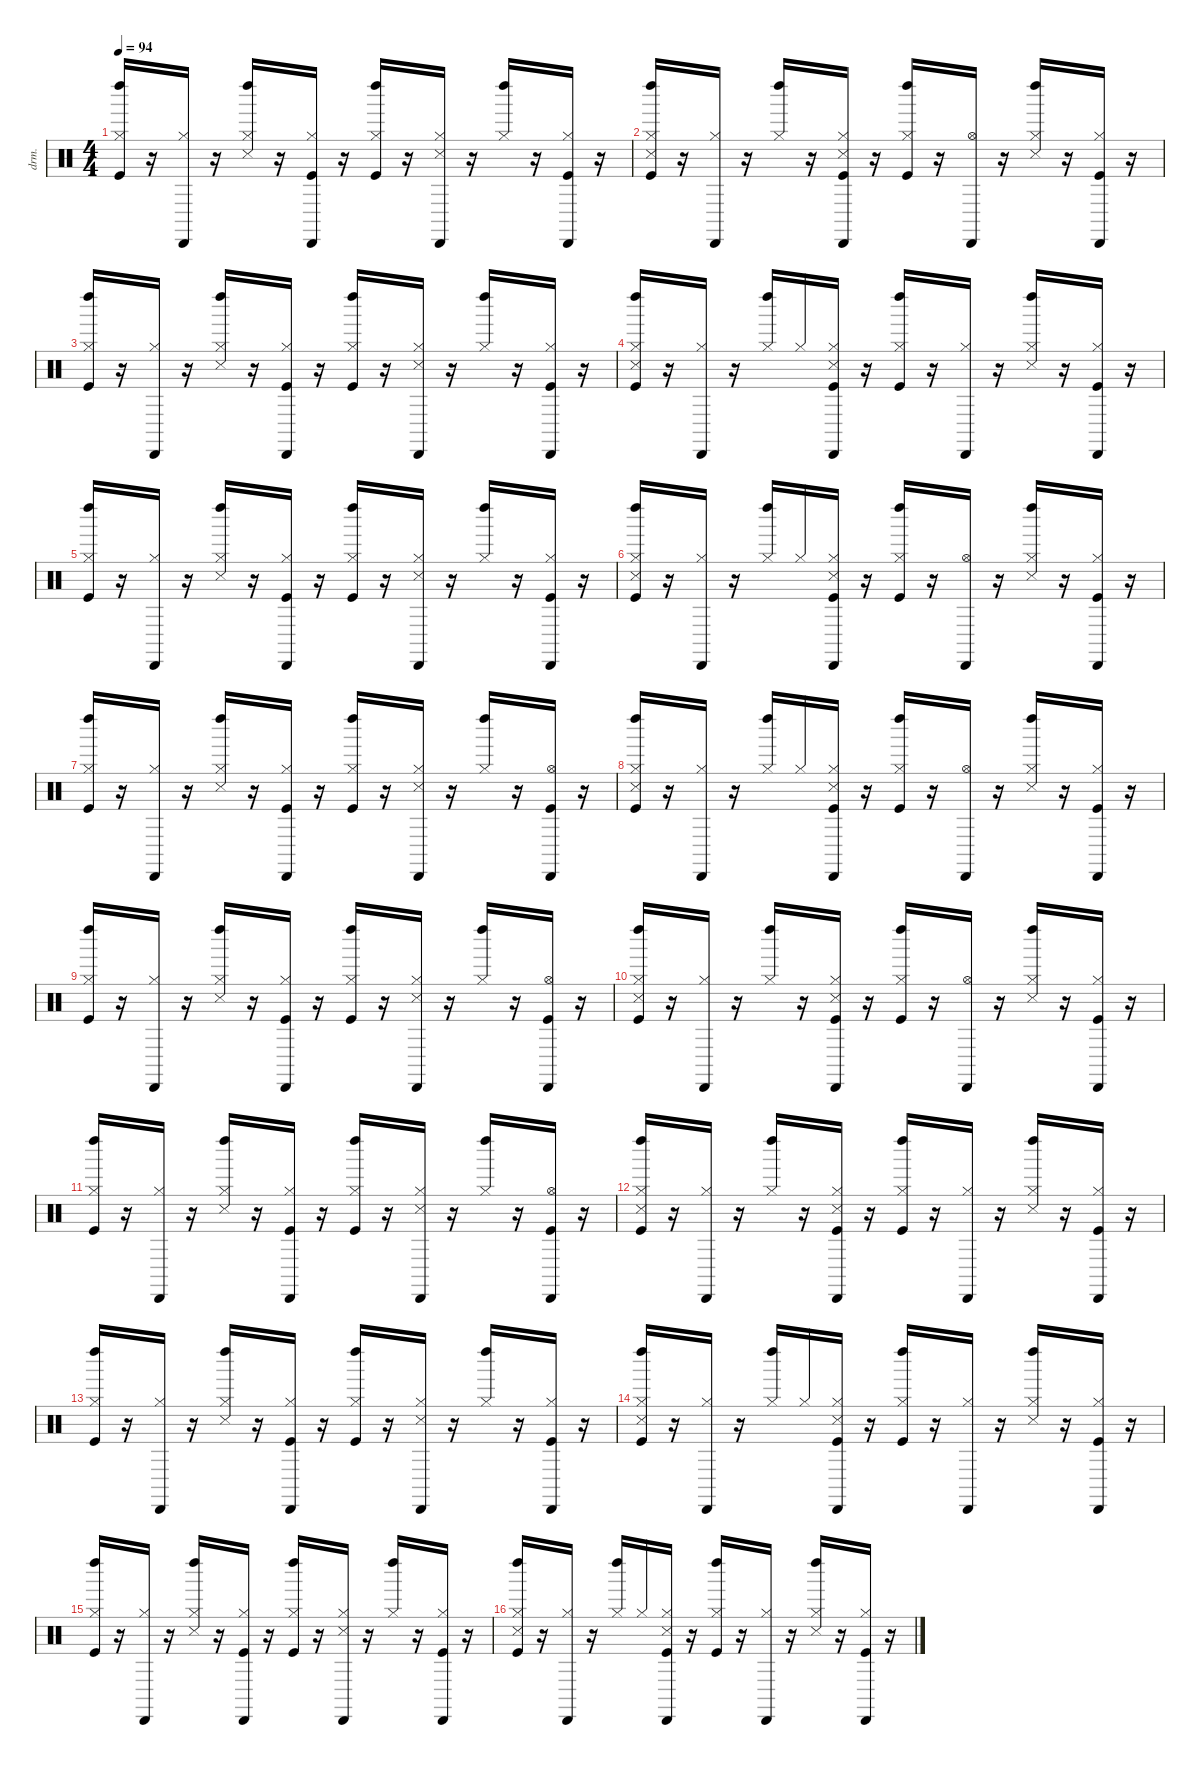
\defaultSystemsLayout 4
\hideDynamics
\bracketExtendMode nobrackets
\otherSystemsTrackNameOrientation horizontal
\track ("Drums" "drm.") {instrument percussion}
\staff {score}
\articulation defaults
\ts (4 4)
\tempo 94
\clef neutral
\ks c
("Left Maraca (hit)" "Hi-Hat (closed)" "Kick (hit)").16{dy mf beam Up} r.16{beam Up} ("Cabasa (hit)" "Hi-Hat (closed)").16{dy p beam Up} r.16{beam Up} ("Left Maraca (hit)" "Hi-Hat (closed)" "Snare (side stick) 3").16{dy mf beam Up} r.16{beam Up} ("Cabasa (hit)" "Hi-Hat (closed)" "Kick (hit)").16{dy p beam Up} r.16{beam Up} ("Left Maraca (hit)" "Hi-Hat (closed)" "Kick (hit)").16{dy mf beam Up} r.16{beam Up} ("Cabasa (hit)" "Hi-Hat (closed)" "Snare (side stick) 3").16{dy p beam Up} r.16{beam Up} ("Left Maraca (hit)" "Hi-Hat (closed)").16{dy mf beam Up} r.16{beam Up} ("Cabasa (hit)" "Hi-Hat (closed)" "Kick (hit)").16{dy p beam Up} r.16{beam Up} |
("Left Maraca (hit)" "Hi-Hat (closed)" "Snare (side stick) 3" "Kick (hit)").16{dy mf beam Up} r.16{beam Up} ("Cabasa (hit)" "Hi-Hat (closed)").16{dy p beam Up} r.16{beam Up} ("Left Maraca (hit)" "Hi-Hat (closed)").16{dy mf beam Up} r.16{beam Up} ("Cabasa (hit)" "Hi-Hat (closed)" "Snare (side stick) 3" "Kick (hit)").16{dy p beam Up} r.16{beam Up} ("Left Maraca (hit)" "Hi-Hat (closed)" "Kick (hit)").16{dy mf beam Up} r.16{beam Up} ("Cabasa (hit)" "Hi-Hat (open)").16{dy p beam Up} r.16{beam Up} ("Left Maraca (hit)" "Hi-Hat (closed)" "Snare (side stick) 3").16{dy mf beam Up} r.16{beam Up} ("Cabasa (hit)" "Hi-Hat (closed)" "Kick (hit)").16{dy p beam Up} r.16{beam Up} |
("Left Maraca (hit)" "Hi-Hat (closed)" "Kick (hit)").16{dy mf beam Up} r.16{beam Up} ("Cabasa (hit)" "Hi-Hat (closed)").16{dy p beam Up} r.16{beam Up} ("Left Maraca (hit)" "Hi-Hat (closed)" "Snare (side stick) 3").16{dy mf beam Up} r.16{beam Up} ("Cabasa (hit)" "Hi-Hat (closed)" "Kick (hit)").16{dy p beam Up} r.16{beam Up} ("Left Maraca (hit)" "Hi-Hat (closed)" "Kick (hit)").16{dy mf beam Up} r.16{beam Up} ("Cabasa (hit)" "Hi-Hat (closed)" "Snare (side stick) 3").16{dy p beam Up} r.16{beam Up} ("Left Maraca (hit)" "Hi-Hat (closed)").16{dy mf beam Up} r.16{beam Up} ("Cabasa (hit)" "Hi-Hat (closed)" "Kick (hit)").16{dy p beam Up} r.16{beam Up} |
("Left Maraca (hit)" "Hi-Hat (closed)" "Snare (side stick) 3" "Kick (hit)").16{dy mf beam Up} r.16{beam Up} ("Cabasa (hit)" "Hi-Hat (closed)").16{dy p beam Up} r.16{beam Up} ("Left Maraca (hit)" "Hi-Hat (closed)").16{dy mf beam Up} "Hi-Hat (closed)".16{beam Up} ("Cabasa (hit)" "Hi-Hat (closed)" "Snare (side stick) 3" "Kick (hit)").16{dy p beam Up} r.16{beam Up} ("Left Maraca (hit)" "Hi-Hat (closed)" "Kick (hit)").16{dy mf beam Up} r.16{beam Up} ("Cabasa (hit)" "Hi-Hat (closed)").16{dy p beam Up} r.16{beam Up} ("Left Maraca (hit)" "Hi-Hat (closed)" "Snare (side stick) 3").16{dy mf beam Up} r.16{beam Up} ("Cabasa (hit)" "Hi-Hat (closed)" "Kick (hit)").16{dy p beam Up} r.16{beam Up} |
("Left Maraca (hit)" "Hi-Hat (closed)" "Kick (hit)").16{dy mf beam Up} r.16{beam Up} ("Cabasa (hit)" "Hi-Hat (closed)").16{dy p beam Up} r.16{beam Up} ("Left Maraca (hit)" "Hi-Hat (closed)" "Snare (side stick) 3").16{dy mf beam Up} r.16{beam Up} ("Cabasa (hit)" "Hi-Hat (closed)" "Kick (hit)").16{dy p beam Up} r.16{beam Up} ("Left Maraca (hit)" "Hi-Hat (closed)" "Kick (hit)").16{dy mf beam Up} r.16{beam Up} ("Cabasa (hit)" "Hi-Hat (closed)" "Snare (side stick) 3").16{dy p beam Up} r.16{beam Up} ("Left Maraca (hit)" "Hi-Hat (closed)").16{dy mf beam Up} r.16{beam Up} ("Cabasa (hit)" "Hi-Hat (closed)" "Kick (hit)").16{dy p beam Up} r.16{beam Up} |
("Left Maraca (hit)" "Hi-Hat (closed)" "Snare (side stick) 3" "Kick (hit)").16{dy mf beam Up} r.16{beam Up} ("Cabasa (hit)" "Hi-Hat (closed)").16{dy p beam Up} r.16{beam Up} ("Left Maraca (hit)" "Hi-Hat (closed)").16{dy mf beam Up} "Hi-Hat (closed)".16{beam Up} ("Cabasa (hit)" "Hi-Hat (closed)" "Snare (side stick) 3" "Kick (hit)").16{dy p beam Up} r.16{beam Up} ("Left Maraca (hit)" "Hi-Hat (closed)" "Kick (hit)").16{dy mf beam Up} r.16{beam Up} ("Cabasa (hit)" "Hi-Hat (open)").16{dy p beam Up} r.16{beam Up} ("Left Maraca (hit)" "Hi-Hat (closed)" "Snare (side stick) 3").16{dy mf beam Up} r.16{beam Up} ("Cabasa (hit)" "Hi-Hat (closed)" "Kick (hit)").16{dy p beam Up} r.16{beam Up} |
("Left Maraca (hit)" "Hi-Hat (closed)" "Kick (hit)").16{dy mf beam Up} r.16{beam Up} ("Cabasa (hit)" "Hi-Hat (closed)").16{dy p beam Up} r.16{beam Up} ("Left Maraca (hit)" "Hi-Hat (closed)" "Snare (side stick) 3").16{dy mf beam Up} r.16{beam Up} ("Cabasa (hit)" "Hi-Hat (closed)" "Kick (hit)").16{dy p beam Up} r.16{beam Up} ("Left Maraca (hit)" "Hi-Hat (closed)" "Kick (hit)").16{dy mf beam Up} r.16{beam Up} ("Cabasa (hit)" "Hi-Hat (closed)" "Snare (side stick) 3").16{dy p beam Up} r.16{beam Up} ("Left Maraca (hit)" "Hi-Hat (closed)").16{dy mf beam Up} r.16{beam Up} ("Cabasa (hit)" "Hi-Hat (open)" "Kick (hit)").16{dy p beam Up} r.16{beam Up} |
("Left Maraca (hit)" "Hi-Hat (closed)" "Snare (side stick) 3" "Kick (hit)").16{dy mf beam Up} r.16{beam Up} ("Cabasa (hit)" "Hi-Hat (closed)").16{dy p beam Up} r.16{beam Up} ("Left Maraca (hit)" "Hi-Hat (closed)").16{dy mf beam Up} "Hi-Hat (closed)".16{beam Up} ("Cabasa (hit)" "Hi-Hat (closed)" "Snare (side stick) 3" "Kick (hit)").16{dy p beam Up} r.16{beam Up} ("Left Maraca (hit)" "Hi-Hat (closed)" "Kick (hit)").16{dy mf beam Up} r.16{beam Up} ("Cabasa (hit)" "Hi-Hat (open)").16{dy p beam Up} r.16{beam Up} ("Left Maraca (hit)" "Hi-Hat (closed)" "Snare (side stick) 3").16{dy mf beam Up} r.16{beam Up} ("Cabasa (hit)" "Hi-Hat (closed)" "Kick (hit)").16{dy p beam Up} r.16{beam Up} |
("Left Maraca (hit)" "Hi-Hat (closed)" "Kick (hit)").16{dy mf beam Up} r.16{beam Up} ("Cabasa (hit)" "Hi-Hat (closed)").16{dy p beam Up} r.16{beam Up} ("Left Maraca (hit)" "Hi-Hat (closed)" "Snare (side stick) 3").16{dy mf beam Up} r.16{beam Up} ("Cabasa (hit)" "Hi-Hat (closed)" "Kick (hit)").16{dy p beam Up} r.16{beam Up} ("Left Maraca (hit)" "Hi-Hat (closed)" "Kick (hit)").16{dy mf beam Up} r.16{beam Up} ("Cabasa (hit)" "Hi-Hat (closed)" "Snare (side stick) 3").16{dy p beam Up} r.16{beam Up} ("Left Maraca (hit)" "Hi-Hat (closed)").16{dy mf beam Up} r.16{beam Up} ("Cabasa (hit)" "Hi-Hat (open)" "Kick (hit)").16{dy p beam Up} r.16{beam Up} |
("Left Maraca (hit)" "Hi-Hat (closed)" "Snare (side stick) 3" "Kick (hit)").16{dy mf beam Up} r.16{beam Up} ("Cabasa (hit)" "Hi-Hat (closed)").16{dy p beam Up} r.16{beam Up} ("Left Maraca (hit)" "Hi-Hat (closed)").16{dy mf beam Up} r.16{beam Up} ("Cabasa (hit)" "Hi-Hat (closed)" "Snare (side stick) 3" "Kick (hit)").16{dy p beam Up} r.16{beam Up} ("Left Maraca (hit)" "Hi-Hat (closed)" "Kick (hit)").16{dy mf beam Up} r.16{beam Up} ("Cabasa (hit)" "Hi-Hat (open)").16{dy p beam Up} r.16{beam Up} ("Left Maraca (hit)" "Hi-Hat (closed)" "Snare (side stick) 3").16{dy mf beam Up} r.16{beam Up} ("Cabasa (hit)" "Hi-Hat (closed)" "Kick (hit)").16{dy p beam Up} r.16{beam Up} |
("Left Maraca (hit)" "Hi-Hat (closed)" "Kick (hit)").16{dy mf beam Up} r.16{beam Up} ("Cabasa (hit)" "Hi-Hat (closed)").16{dy p beam Up} r.16{beam Up} ("Left Maraca (hit)" "Hi-Hat (closed)" "Snare (side stick) 3").16{dy mf beam Up} r.16{beam Up} ("Cabasa (hit)" "Hi-Hat (closed)" "Kick (hit)").16{dy p beam Up} r.16{beam Up} ("Left Maraca (hit)" "Hi-Hat (closed)" "Kick (hit)").16{dy mf beam Up} r.16{beam Up} ("Cabasa (hit)" "Hi-Hat (closed)" "Snare (side stick) 3").16{dy p beam Up} r.16{beam Up} ("Left Maraca (hit)" "Hi-Hat (closed)").16{dy mf beam Up} r.16{beam Up} ("Cabasa (hit)" "Hi-Hat (open)" "Kick (hit)").16{dy p beam Up} r.16{beam Up} |
("Left Maraca (hit)" "Hi-Hat (closed)" "Snare (side stick) 3" "Kick (hit)").16{dy mf beam Up} r.16{beam Up} ("Cabasa (hit)" "Hi-Hat (closed)").16{dy p beam Up} r.16{beam Up} ("Left Maraca (hit)" "Hi-Hat (closed)").16{dy mf beam Up} r.16{beam Up} ("Cabasa (hit)" "Hi-Hat (closed)" "Snare (side stick) 3" "Kick (hit)").16{dy p beam Up} r.16{beam Up} ("Left Maraca (hit)" "Hi-Hat (closed)" "Kick (hit)").16{dy mf beam Up} r.16{beam Up} ("Cabasa (hit)" "Hi-Hat (closed)").16{dy p beam Up} r.16{beam Up} ("Left Maraca (hit)" "Hi-Hat (closed)" "Snare (side stick) 3").16{dy mf beam Up} r.16{beam Up} ("Cabasa (hit)" "Hi-Hat (closed)" "Kick (hit)").16{dy p beam Up} r.16{beam Up} |
("Left Maraca (hit)" "Hi-Hat (closed)" "Kick (hit)").16{dy mf beam Up} r.16{beam Up} ("Cabasa (hit)" "Hi-Hat (closed)").16{dy p beam Up} r.16{beam Up} ("Left Maraca (hit)" "Hi-Hat (closed)" "Snare (side stick) 3").16{dy mf beam Up} r.16{beam Up} ("Cabasa (hit)" "Hi-Hat (closed)" "Kick (hit)").16{dy p beam Up} r.16{beam Up} ("Left Maraca (hit)" "Hi-Hat (closed)" "Kick (hit)").16{dy mf beam Up} r.16{beam Up} ("Cabasa (hit)" "Hi-Hat (closed)" "Snare (side stick) 3").16{dy p beam Up} r.16{beam Up} ("Left Maraca (hit)" "Hi-Hat (closed)").16{dy mf beam Up} r.16{beam Up} ("Cabasa (hit)" "Hi-Hat (closed)" "Kick (hit)").16{dy p beam Up} r.16{beam Up} |
("Left Maraca (hit)" "Hi-Hat (closed)" "Snare (side stick) 3" "Kick (hit)").16{dy mf beam Up} r.16{beam Up} ("Cabasa (hit)" "Hi-Hat (closed)").16{dy p beam Up} r.16{beam Up} ("Left Maraca (hit)" "Hi-Hat (closed)").16{dy mf beam Up} "Hi-Hat (closed)".16{beam Up} ("Cabasa (hit)" "Hi-Hat (closed)" "Snare (side stick) 3" "Kick (hit)").16{dy p beam Up} r.16{beam Up} ("Left Maraca (hit)" "Hi-Hat (closed)" "Kick (hit)").16{dy mf beam Up} r.16{beam Up} ("Cabasa (hit)" "Hi-Hat (closed)").16{dy p beam Up} r.16{beam Up} ("Left Maraca (hit)" "Hi-Hat (closed)" "Snare (side stick) 3").16{dy mf beam Up} r.16{beam Up} ("Cabasa (hit)" "Hi-Hat (closed)" "Kick (hit)").16{dy p beam Up} r.16{beam Up} |
("Left Maraca (hit)" "Hi-Hat (closed)" "Kick (hit)").16{dy mf beam Up} r.16{beam Up} ("Cabasa (hit)" "Hi-Hat (closed)").16{dy p beam Up} r.16{beam Up} ("Left Maraca (hit)" "Hi-Hat (closed)" "Snare (side stick) 3").16{dy mf beam Up} r.16{beam Up} ("Cabasa (hit)" "Hi-Hat (closed)" "Kick (hit)").16{dy p beam Up} r.16{beam Up} ("Left Maraca (hit)" "Hi-Hat (closed)" "Kick (hit)").16{dy mf beam Up} r.16{beam Up} ("Cabasa (hit)" "Hi-Hat (closed)" "Snare (side stick) 3").16{dy p beam Up} r.16{beam Up} ("Left Maraca (hit)" "Hi-Hat (closed)").16{dy mf beam Up} r.16{beam Up} ("Cabasa (hit)" "Hi-Hat (closed)" "Kick (hit)").16{dy p beam Up} r.16{beam Up} |
("Left Maraca (hit)" "Hi-Hat (closed)" "Snare (side stick) 3" "Kick (hit)").16{dy mf beam Up} r.16{beam Up} ("Cabasa (hit)" "Hi-Hat (closed)").16{dy p beam Up} r.16{beam Up} ("Left Maraca (hit)" "Hi-Hat (closed)").16{dy mf beam Up} "Hi-Hat (closed)".16{beam Up} ("Cabasa (hit)" "Hi-Hat (closed)" "Snare (side stick) 3" "Kick (hit)").16{dy p beam Up} r.16{beam Up} ("Left Maraca (hit)" "Hi-Hat (closed)" "Kick (hit)").16{dy mf beam Up} r.16{beam Up} ("Cabasa (hit)" "Hi-Hat (closed)").16{dy p beam Up} r.16{beam Up} ("Left Maraca (hit)" "Hi-Hat (closed)" "Snare (side stick) 3").16{dy mf beam Up} r.16{beam Up} ("Cabasa (hit)" "Hi-Hat (closed)" "Kick (hit)").16{dy p beam Up} r.16{beam Up}
